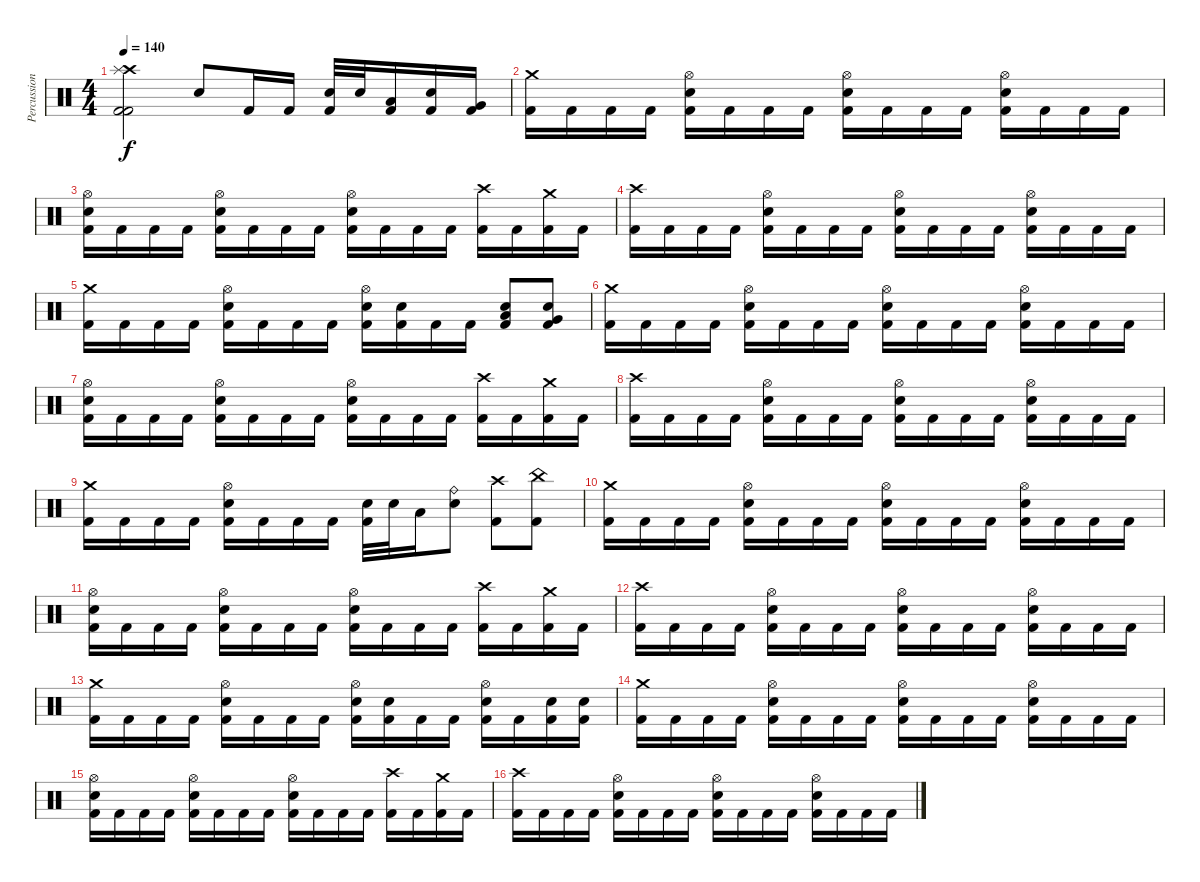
\track ("Percussion" "Percussion") {instrument percussion}
\staff {score}
\articulation defaults
\ts (4 4)
\tempo 140
\clef neutral
\ks c
("Crash high (hit)" "Splash (hit)" "Kick (hit) 2" "Kick (hit) 2").2{dy f} "Electric Snare (hit)".8 "Kick (hit) 2".16 "Kick (hit) 2".16 ("Electric Snare (hit)" "Kick (hit) 2").32 "Electric Snare (hit)".32 ("Low Tom (hit)" "Kick (hit) 2").16 ("Electric Snare (hit)" "Kick (hit) 2").16 ("Very Low Tom (hit)" "Kick (hit) 2").16 |
("Crash medium (hit)" "Kick (hit) 2").16 "Kick (hit) 2".16 "Kick (hit) 2".16 "Kick (hit) 2".16 ("Hi-Hat (open)" "Electric Snare (hit)" "Kick (hit) 2").16 "Kick (hit) 2".16 "Kick (hit) 2".16 "Kick (hit) 2".16 ("Hi-Hat (open)" "Electric Snare (hit)" "Kick (hit) 2").16 "Kick (hit) 2".16 "Kick (hit) 2".16 "Kick (hit) 2".16 ("Hi-Hat (open)" "Electric Snare (hit)" "Kick (hit) 2").16 "Kick (hit) 2".16 "Kick (hit) 2".16 "Kick (hit) 2".16 |
("Hi-Hat (open)" "Electric Snare (hit)" "Kick (hit) 2").16 "Kick (hit) 2".16 "Kick (hit) 2".16 "Kick (hit) 2".16 ("Hi-Hat (open)" "Electric Snare (hit)" "Kick (hit) 2").16 "Kick (hit) 2".16 "Kick (hit) 2".16 "Kick (hit) 2".16 ("Hi-Hat (open)" "Electric Snare (hit)" "Kick (hit) 2").16 "Kick (hit) 2".16 "Kick (hit) 2".16 "Kick (hit) 2".16 ("Crash high (hit)" "Kick (hit) 2").16 "Kick (hit) 2".16 ("Crash medium (hit)" "Kick (hit) 2").16 "Kick (hit) 2".16 |
("Crash high (hit)" "Kick (hit) 2").16 "Kick (hit) 2".16 "Kick (hit) 2".16 "Kick (hit) 2".16 ("Hi-Hat (open)" "Electric Snare (hit)" "Kick (hit) 2").16 "Kick (hit) 2".16 "Kick (hit) 2".16 "Kick (hit) 2".16 ("Hi-Hat (open)" "Electric Snare (hit)" "Kick (hit) 2").16 "Kick (hit) 2".16 "Kick (hit) 2".16 "Kick (hit) 2".16 ("Hi-Hat (open)" "Electric Snare (hit)" "Kick (hit) 2").16 "Kick (hit) 2".16 "Kick (hit) 2".16 "Kick (hit) 2".16 |
("Crash medium (hit)" "Kick (hit) 2").16 "Kick (hit) 2".16 "Kick (hit) 2".16 "Kick (hit) 2".16 ("Hi-Hat (open)" "Electric Snare (hit)" "Kick (hit) 2").16 "Kick (hit) 2".16 "Kick (hit) 2".16 "Kick (hit) 2".16 ("Hi-Hat (open)" "Electric Snare (hit)" "Kick (hit) 2").16 ("Electric Snare (hit)" "Kick (hit) 2").16 "Kick (hit) 2".16 "Kick (hit) 2".16 ("Electric Snare (hit)" "Low Tom (hit)" "Kick (hit) 2").8 ("Electric Snare (hit)" "Very Low Tom (hit)" "Kick (hit) 2").8 |
("Crash medium (hit)" "Kick (hit) 2").16 "Kick (hit) 2".16 "Kick (hit) 2".16 "Kick (hit) 2".16 ("Hi-Hat (open)" "Electric Snare (hit)" "Kick (hit) 2").16 "Kick (hit) 2".16 "Kick (hit) 2".16 "Kick (hit) 2".16 ("Hi-Hat (open)" "Electric Snare (hit)" "Kick (hit) 2").16 "Kick (hit) 2".16 "Kick (hit) 2".16 "Kick (hit) 2".16 ("Hi-Hat (open)" "Electric Snare (hit)" "Kick (hit) 2").16 "Kick (hit) 2".16 "Kick (hit) 2".16 "Kick (hit) 2".16 |
("Hi-Hat (open)" "Electric Snare (hit)" "Kick (hit) 2").16 "Kick (hit) 2".16 "Kick (hit) 2".16 "Kick (hit) 2".16 ("Hi-Hat (open)" "Electric Snare (hit)" "Kick (hit) 2").16 "Kick (hit) 2".16 "Kick (hit) 2".16 "Kick (hit) 2".16 ("Hi-Hat (open)" "Electric Snare (hit)" "Kick (hit) 2").16 "Kick (hit) 2".16 "Kick (hit) 2".16 "Kick (hit) 2".16 ("Crash high (hit)" "Kick (hit) 2").16 "Kick (hit) 2".16 ("Crash medium (hit)" "Kick (hit) 2").16 "Kick (hit) 2".16 |
("Crash high (hit)" "Kick (hit) 2").16 "Kick (hit) 2".16 "Kick (hit) 2".16 "Kick (hit) 2".16 ("Hi-Hat (open)" "Electric Snare (hit)" "Kick (hit) 2").16 "Kick (hit) 2".16 "Kick (hit) 2".16 "Kick (hit) 2".16 ("Hi-Hat (open)" "Electric Snare (hit)" "Kick (hit) 2").16 "Kick (hit) 2".16 "Kick (hit) 2".16 "Kick (hit) 2".16 ("Hi-Hat (open)" "Electric Snare (hit)" "Kick (hit) 2").16 "Kick (hit) 2".16 "Kick (hit) 2".16 "Kick (hit) 2".16 |
("Crash medium (hit)" "Kick (hit) 2").16 "Kick (hit) 2".16 "Kick (hit) 2".16 "Kick (hit) 2".16 ("Hi-Hat (open)" "Electric Snare (hit)" "Kick (hit) 2").16 "Kick (hit) 2".16 "Kick (hit) 2".16 "Kick (hit) 2".16 ("Electric Snare (hit)" "Kick (hit) 2").32 "Electric Snare (hit)".32 "Low Tom (hit)".16 ("Ride (bell)" "Electric Snare (hit)").8 ("Crash high (hit)" "Kick (hit) 2").8 ("China (hit)" "Kick (hit) 2").8 |
("Crash medium (hit)" "Kick (hit) 2").16 "Kick (hit) 2".16 "Kick (hit) 2".16 "Kick (hit) 2".16 ("Hi-Hat (open)" "Electric Snare (hit)" "Kick (hit) 2").16 "Kick (hit) 2".16 "Kick (hit) 2".16 "Kick (hit) 2".16 ("Hi-Hat (open)" "Electric Snare (hit)" "Kick (hit) 2").16 "Kick (hit) 2".16 "Kick (hit) 2".16 "Kick (hit) 2".16 ("Hi-Hat (open)" "Electric Snare (hit)" "Kick (hit) 2").16 "Kick (hit) 2".16 "Kick (hit) 2".16 "Kick (hit) 2".16 |
("Hi-Hat (open)" "Electric Snare (hit)" "Kick (hit) 2").16 "Kick (hit) 2".16 "Kick (hit) 2".16 "Kick (hit) 2".16 ("Hi-Hat (open)" "Electric Snare (hit)" "Kick (hit) 2").16 "Kick (hit) 2".16 "Kick (hit) 2".16 "Kick (hit) 2".16 ("Hi-Hat (open)" "Electric Snare (hit)" "Kick (hit) 2").16 "Kick (hit) 2".16 "Kick (hit) 2".16 "Kick (hit) 2".16 ("Crash high (hit)" "Kick (hit) 2").16 "Kick (hit) 2".16 ("Crash medium (hit)" "Kick (hit) 2").16 "Kick (hit) 2".16 |
("Crash high (hit)" "Kick (hit) 2").16 "Kick (hit) 2".16 "Kick (hit) 2".16 "Kick (hit) 2".16 ("Hi-Hat (open)" "Electric Snare (hit)" "Kick (hit) 2").16 "Kick (hit) 2".16 "Kick (hit) 2".16 "Kick (hit) 2".16 ("Hi-Hat (open)" "Electric Snare (hit)" "Kick (hit) 2").16 "Kick (hit) 2".16 "Kick (hit) 2".16 "Kick (hit) 2".16 ("Hi-Hat (open)" "Electric Snare (hit)" "Kick (hit) 2").16 "Kick (hit) 2".16 "Kick (hit) 2".16 "Kick (hit) 2".16 |
("Crash medium (hit)" "Kick (hit) 2").16 "Kick (hit) 2".16 "Kick (hit) 2".16 "Kick (hit) 2".16 ("Hi-Hat (open)" "Electric Snare (hit)" "Kick (hit) 2").16 "Kick (hit) 2".16 "Kick (hit) 2".16 "Kick (hit) 2".16 ("Hi-Hat (open)" "Electric Snare (hit)" "Kick (hit) 2").16 ("Electric Snare (hit)" "Kick (hit) 2").16 "Kick (hit) 2".16 "Kick (hit) 2".16 ("Hi-Hat (open)" "Electric Snare (hit)" "Kick (hit) 2").16 "Kick (hit) 2".16 ("Electric Snare (hit)" "Kick (hit) 2").16 ("Electric Snare (hit)" "Kick (hit) 2").16 |
("Crash medium (hit)" "Kick (hit) 2").16 "Kick (hit) 2".16 "Kick (hit) 2".16 "Kick (hit) 2".16 ("Hi-Hat (open)" "Electric Snare (hit)" "Kick (hit) 2").16 "Kick (hit) 2".16 "Kick (hit) 2".16 "Kick (hit) 2".16 ("Hi-Hat (open)" "Electric Snare (hit)" "Kick (hit) 2").16 "Kick (hit) 2".16 "Kick (hit) 2".16 "Kick (hit) 2".16 ("Hi-Hat (open)" "Electric Snare (hit)" "Kick (hit) 2").16 "Kick (hit) 2".16 "Kick (hit) 2".16 "Kick (hit) 2".16 |
("Hi-Hat (open)" "Electric Snare (hit)" "Kick (hit) 2").16 "Kick (hit) 2".16 "Kick (hit) 2".16 "Kick (hit) 2".16 ("Hi-Hat (open)" "Electric Snare (hit)" "Kick (hit) 2").16 "Kick (hit) 2".16 "Kick (hit) 2".16 "Kick (hit) 2".16 ("Hi-Hat (open)" "Electric Snare (hit)" "Kick (hit) 2").16 "Kick (hit) 2".16 "Kick (hit) 2".16 "Kick (hit) 2".16 ("Crash high (hit)" "Kick (hit) 2").16 "Kick (hit) 2".16 ("Crash medium (hit)" "Kick (hit) 2").16 "Kick (hit) 2".16 |
("Crash high (hit)" "Kick (hit) 2").16 "Kick (hit) 2".16 "Kick (hit) 2".16 "Kick (hit) 2".16 ("Hi-Hat (open)" "Electric Snare (hit)" "Kick (hit) 2").16 "Kick (hit) 2".16 "Kick (hit) 2".16 "Kick (hit) 2".16 ("Hi-Hat (open)" "Electric Snare (hit)" "Kick (hit) 2").16 "Kick (hit) 2".16 "Kick (hit) 2".16 "Kick (hit) 2".16 ("Hi-Hat (open)" "Electric Snare (hit)" "Kick (hit) 2").16 "Kick (hit) 2".16 "Kick (hit) 2".16 "Kick (hit) 2".16
